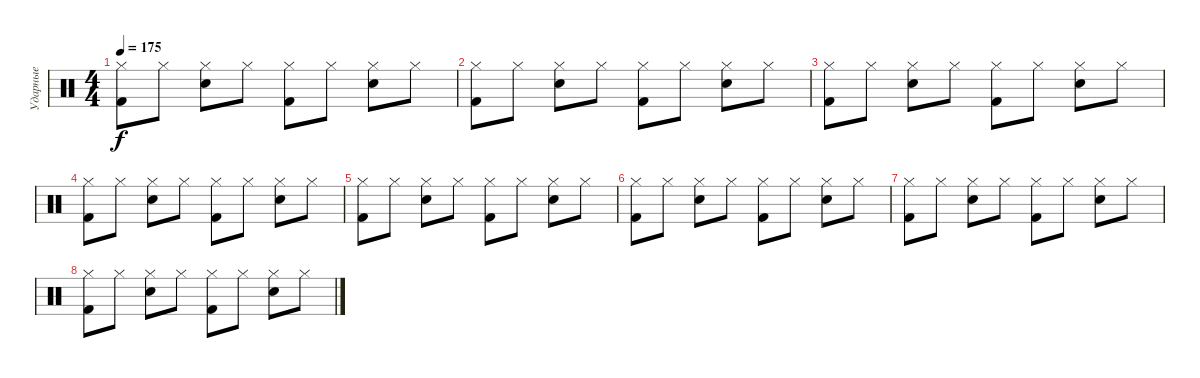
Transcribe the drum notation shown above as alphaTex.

\track ("Ударные" "Ударные") {instrument percussion}
\staff {score}
\articulation defaults
\ts (4 4)
\tempo 175
\clef neutral
\ks c
("Kick (hit) 2" "Hi-Hat (closed)").8{dy f} "Hi-Hat (closed)".8 ("Snare (hit) 2" "Hi-Hat (closed)").8 "Hi-Hat (closed)".8 ("Kick (hit) 2" "Hi-Hat (closed)").8 "Hi-Hat (closed)".8 ("Snare (hit) 2" "Hi-Hat (closed)").8 "Hi-Hat (closed)".8 |
("Kick (hit) 2" "Hi-Hat (closed)").8 "Hi-Hat (closed)".8 ("Snare (hit) 2" "Hi-Hat (closed)").8 "Hi-Hat (closed)".8 ("Kick (hit) 2" "Hi-Hat (closed)").8 "Hi-Hat (closed)".8 ("Snare (hit) 2" "Hi-Hat (closed)").8 "Hi-Hat (closed)".8 |
("Kick (hit) 2" "Hi-Hat (closed)").8 "Hi-Hat (closed)".8 ("Snare (hit) 2" "Hi-Hat (closed)").8 "Hi-Hat (closed)".8 ("Kick (hit) 2" "Hi-Hat (closed)").8 "Hi-Hat (closed)".8 ("Snare (hit) 2" "Hi-Hat (closed)").8 "Hi-Hat (closed)".8 |
("Kick (hit) 2" "Hi-Hat (closed)").8 "Hi-Hat (closed)".8 ("Snare (hit) 2" "Hi-Hat (closed)").8 "Hi-Hat (closed)".8 ("Kick (hit) 2" "Hi-Hat (closed)").8 "Hi-Hat (closed)".8 ("Snare (hit) 2" "Hi-Hat (closed)").8 "Hi-Hat (closed)".8 |
("Kick (hit) 2" "Hi-Hat (closed)").8 "Hi-Hat (closed)".8 ("Snare (hit) 2" "Hi-Hat (closed)").8 "Hi-Hat (closed)".8 ("Kick (hit) 2" "Hi-Hat (closed)").8 "Hi-Hat (closed)".8 ("Snare (hit) 2" "Hi-Hat (closed)").8 "Hi-Hat (closed)".8 |
("Kick (hit) 2" "Hi-Hat (closed)").8 "Hi-Hat (closed)".8 ("Snare (hit) 2" "Hi-Hat (closed)").8 "Hi-Hat (closed)".8 ("Kick (hit) 2" "Hi-Hat (closed)").8 "Hi-Hat (closed)".8 ("Snare (hit) 2" "Hi-Hat (closed)").8 "Hi-Hat (closed)".8 |
("Kick (hit) 2" "Hi-Hat (closed)").8 "Hi-Hat (closed)".8 ("Snare (hit) 2" "Hi-Hat (closed)").8 "Hi-Hat (closed)".8 ("Kick (hit) 2" "Hi-Hat (closed)").8 "Hi-Hat (closed)".8 ("Snare (hit) 2" "Hi-Hat (closed)").8 "Hi-Hat (closed)".8 |
("Kick (hit) 2" "Hi-Hat (closed)").8 "Hi-Hat (closed)".8 ("Snare (hit) 2" "Hi-Hat (closed)").8 "Hi-Hat (closed)".8 ("Kick (hit) 2" "Hi-Hat (closed)").8 "Hi-Hat (closed)".8 ("Snare (hit) 2" "Hi-Hat (closed)").8 "Hi-Hat (closed)".8
